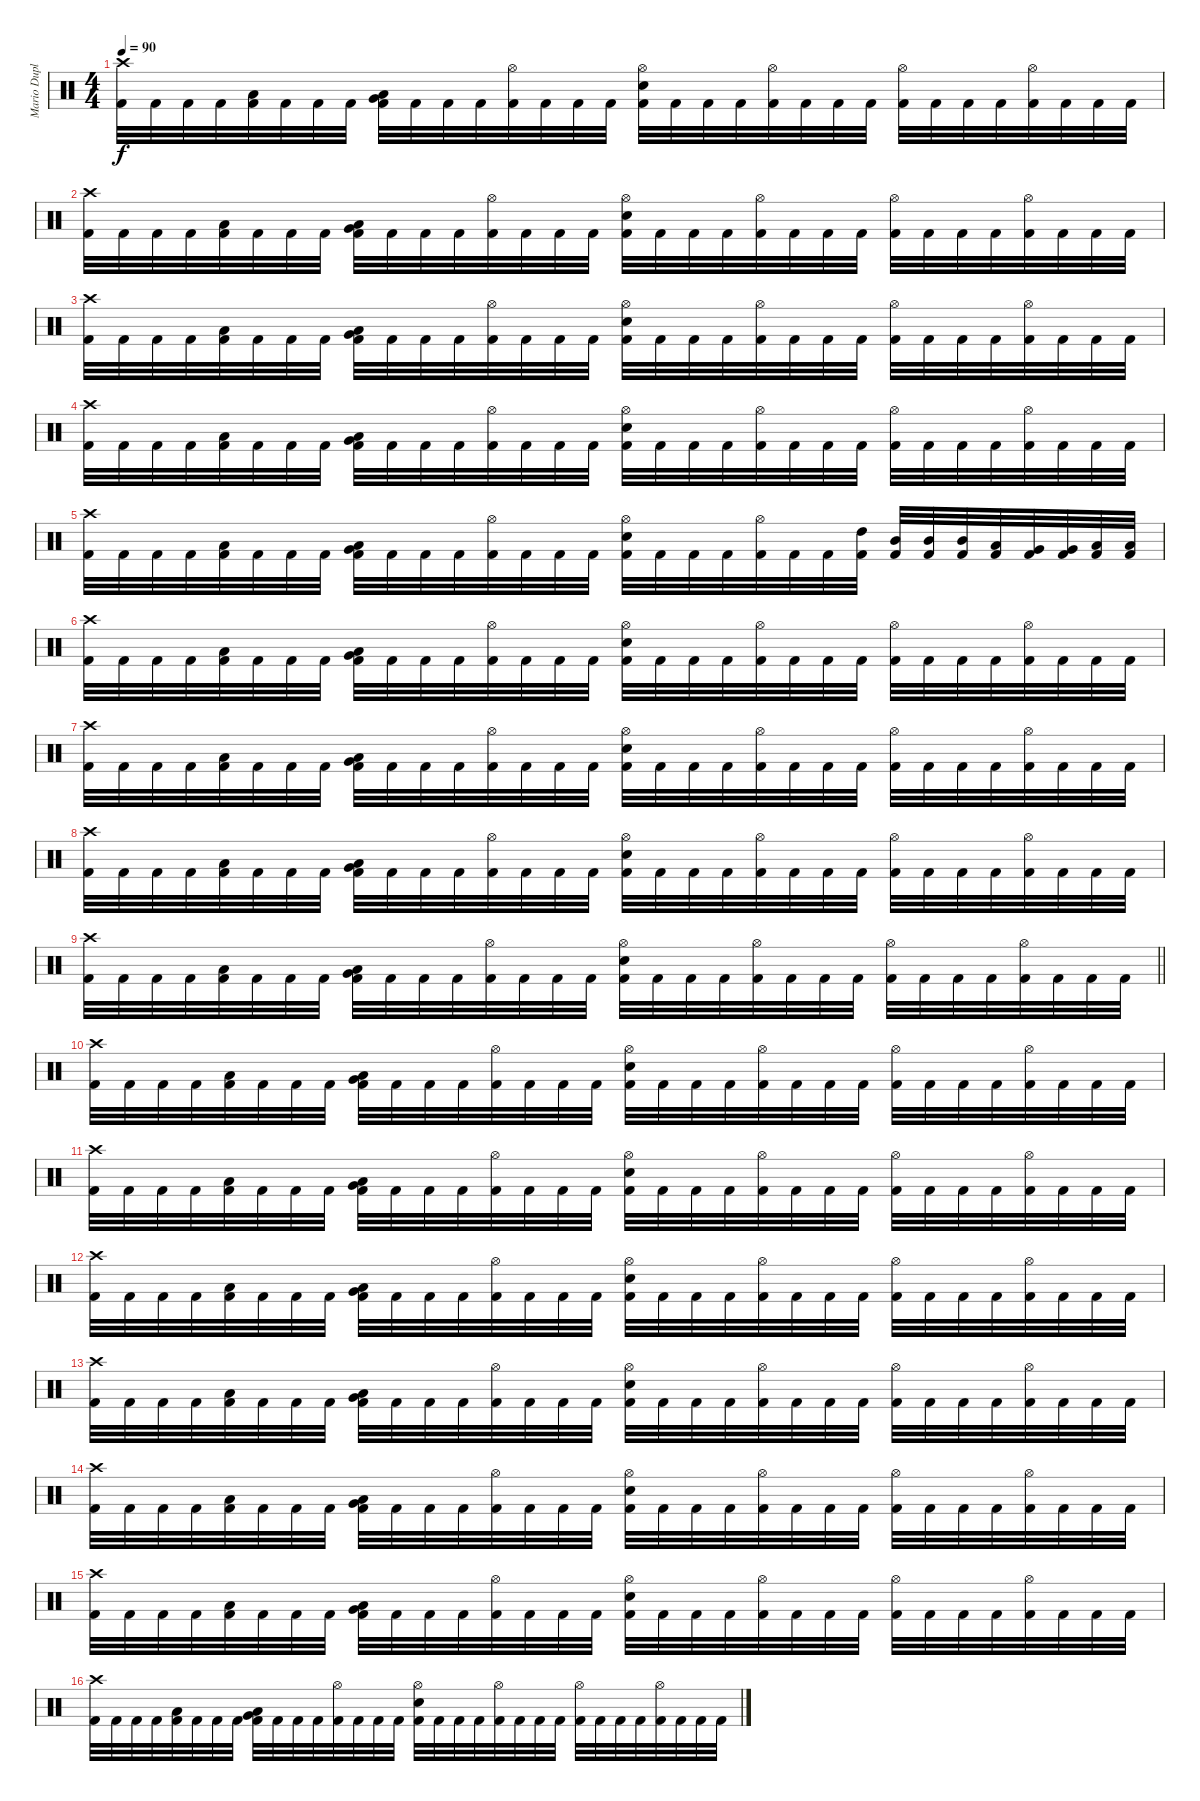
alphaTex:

\track ("Mario Duplantier" "Mario Dupl") {instrument percussion}
\staff {score}
\articulation defaults
\ts (4 4)
\tempo 90
\clef neutral
\ks c
("Crash high (hit)" "Kick (hit) 2").32{dy f} "Kick (hit) 2".32 "Kick (hit) 2".32 "Kick (hit) 2".32 ("Low Tom (hit)" "Kick (hit) 2").32 "Kick (hit) 2".32 "Kick (hit) 2".32 "Kick (hit) 2".32 ("Very Low Tom (hit)" "Low Floor Tom (hit)" "Kick (hit) 2").32 "Kick (hit) 2".32 "Kick (hit) 2".32 "Kick (hit) 2".32 ("Hi-Hat (open)" "Kick (hit) 2").32 "Kick (hit) 2".32 "Kick (hit) 2".32 "Kick (hit) 2".32 ("Hi-Hat (open)" "Electric Snare (hit)" "Kick (hit) 2").32 "Kick (hit) 2".32 "Kick (hit) 2".32 "Kick (hit) 2".32 ("Hi-Hat (open)" "Kick (hit) 2").32 "Kick (hit) 2".32 "Kick (hit) 2".32 "Kick (hit) 2".32 ("Hi-Hat (open)" "Kick (hit) 2").32 "Kick (hit) 2".32 "Kick (hit) 2".32 "Kick (hit) 2".32 ("Hi-Hat (open)" "Kick (hit) 2").32 "Kick (hit) 2".32 "Kick (hit) 2".32 "Kick (hit) 2".32 |
("Crash high (hit)" "Kick (hit) 2").32 "Kick (hit) 2".32 "Kick (hit) 2".32 "Kick (hit) 2".32 ("Low Tom (hit)" "Kick (hit) 2").32 "Kick (hit) 2".32 "Kick (hit) 2".32 "Kick (hit) 2".32 ("Very Low Tom (hit)" "Low Floor Tom (hit)" "Kick (hit) 2").32 "Kick (hit) 2".32 "Kick (hit) 2".32 "Kick (hit) 2".32 ("Hi-Hat (open)" "Kick (hit) 2").32 "Kick (hit) 2".32 "Kick (hit) 2".32 "Kick (hit) 2".32 ("Hi-Hat (open)" "Electric Snare (hit)" "Kick (hit) 2").32 "Kick (hit) 2".32 "Kick (hit) 2".32 "Kick (hit) 2".32 ("Hi-Hat (open)" "Kick (hit) 2").32 "Kick (hit) 2".32 "Kick (hit) 2".32 "Kick (hit) 2".32 ("Hi-Hat (open)" "Kick (hit) 2").32 "Kick (hit) 2".32 "Kick (hit) 2".32 "Kick (hit) 2".32 ("Hi-Hat (open)" "Kick (hit) 2").32 "Kick (hit) 2".32 "Kick (hit) 2".32 "Kick (hit) 2".32 |
("Crash high (hit)" "Kick (hit) 2").32 "Kick (hit) 2".32 "Kick (hit) 2".32 "Kick (hit) 2".32 ("Low Tom (hit)" "Kick (hit) 2").32 "Kick (hit) 2".32 "Kick (hit) 2".32 "Kick (hit) 2".32 ("Very Low Tom (hit)" "Low Floor Tom (hit)" "Kick (hit) 2").32 "Kick (hit) 2".32 "Kick (hit) 2".32 "Kick (hit) 2".32 ("Hi-Hat (open)" "Kick (hit) 2").32 "Kick (hit) 2".32 "Kick (hit) 2".32 "Kick (hit) 2".32 ("Hi-Hat (open)" "Electric Snare (hit)" "Kick (hit) 2").32 "Kick (hit) 2".32 "Kick (hit) 2".32 "Kick (hit) 2".32 ("Hi-Hat (open)" "Kick (hit) 2").32 "Kick (hit) 2".32 "Kick (hit) 2".32 "Kick (hit) 2".32 ("Hi-Hat (open)" "Kick (hit) 2").32 "Kick (hit) 2".32 "Kick (hit) 2".32 "Kick (hit) 2".32 ("Hi-Hat (open)" "Kick (hit) 2").32 "Kick (hit) 2".32 "Kick (hit) 2".32 "Kick (hit) 2".32 |
("Crash high (hit)" "Kick (hit) 2").32 "Kick (hit) 2".32 "Kick (hit) 2".32 "Kick (hit) 2".32 ("Low Tom (hit)" "Kick (hit) 2").32 "Kick (hit) 2".32 "Kick (hit) 2".32 "Kick (hit) 2".32 ("Very Low Tom (hit)" "Low Floor Tom (hit)" "Kick (hit) 2").32 "Kick (hit) 2".32 "Kick (hit) 2".32 "Kick (hit) 2".32 ("Hi-Hat (open)" "Kick (hit) 2").32 "Kick (hit) 2".32 "Kick (hit) 2".32 "Kick (hit) 2".32 ("Hi-Hat (open)" "Electric Snare (hit)" "Kick (hit) 2").32 "Kick (hit) 2".32 "Kick (hit) 2".32 "Kick (hit) 2".32 ("Hi-Hat (open)" "Kick (hit) 2").32 "Kick (hit) 2".32 "Kick (hit) 2".32 "Kick (hit) 2".32 ("Hi-Hat (open)" "Kick (hit) 2").32 "Kick (hit) 2".32 "Kick (hit) 2".32 "Kick (hit) 2".32 ("Hi-Hat (open)" "Kick (hit) 2").32 "Kick (hit) 2".32 "Kick (hit) 2".32 "Kick (hit) 2".32 |
("Crash high (hit)" "Kick (hit) 2").32 "Kick (hit) 2".32 "Kick (hit) 2".32 "Kick (hit) 2".32 ("Low Tom (hit)" "Kick (hit) 2").32 "Kick (hit) 2".32 "Kick (hit) 2".32 "Kick (hit) 2".32 ("Very Low Tom (hit)" "Low Floor Tom (hit)" "Kick (hit) 2").32 "Kick (hit) 2".32 "Kick (hit) 2".32 "Kick (hit) 2".32 ("Hi-Hat (open)" "Kick (hit) 2").32 "Kick (hit) 2".32 "Kick (hit) 2".32 "Kick (hit) 2".32 ("Hi-Hat (open)" "Electric Snare (hit)" "Kick (hit) 2").32 "Kick (hit) 2".32 "Kick (hit) 2".32 "Kick (hit) 2".32 ("Hi-Hat (open)" "Kick (hit) 2").32 "Kick (hit) 2".32 "Kick (hit) 2".32 ("High Tom (hit)" "Kick (hit) 2").32 ("Mid Tom (hit)" "Kick (hit) 2").32 ("Mid Tom (hit)" "Kick (hit) 2").32 ("Mid Tom (hit)" "Kick (hit) 2").32 ("Low Tom (hit)" "Kick (hit) 2").32 ("Very Low Tom (hit)" "Kick (hit) 2").32 ("Very Low Tom (hit)" "Kick (hit) 2").32 ("Low Floor Tom (hit)" "Kick (hit) 2").32 ("Low Floor Tom (hit)" "Kick (hit) 2").32 |
("Crash high (hit)" "Kick (hit) 2").32 "Kick (hit) 2".32 "Kick (hit) 2".32 "Kick (hit) 2".32 ("Low Tom (hit)" "Kick (hit) 2").32 "Kick (hit) 2".32 "Kick (hit) 2".32 "Kick (hit) 2".32 ("Very Low Tom (hit)" "Low Floor Tom (hit)" "Kick (hit) 2").32 "Kick (hit) 2".32 "Kick (hit) 2".32 "Kick (hit) 2".32 ("Hi-Hat (open)" "Kick (hit) 2").32 "Kick (hit) 2".32 "Kick (hit) 2".32 "Kick (hit) 2".32 ("Hi-Hat (open)" "Electric Snare (hit)" "Kick (hit) 2").32 "Kick (hit) 2".32 "Kick (hit) 2".32 "Kick (hit) 2".32 ("Hi-Hat (open)" "Kick (hit) 2").32 "Kick (hit) 2".32 "Kick (hit) 2".32 "Kick (hit) 2".32 ("Hi-Hat (open)" "Kick (hit) 2").32 "Kick (hit) 2".32 "Kick (hit) 2".32 "Kick (hit) 2".32 ("Hi-Hat (open)" "Kick (hit) 2").32 "Kick (hit) 2".32 "Kick (hit) 2".32 "Kick (hit) 2".32 |
("Crash high (hit)" "Kick (hit) 2").32 "Kick (hit) 2".32 "Kick (hit) 2".32 "Kick (hit) 2".32 ("Low Tom (hit)" "Kick (hit) 2").32 "Kick (hit) 2".32 "Kick (hit) 2".32 "Kick (hit) 2".32 ("Very Low Tom (hit)" "Low Floor Tom (hit)" "Kick (hit) 2").32 "Kick (hit) 2".32 "Kick (hit) 2".32 "Kick (hit) 2".32 ("Hi-Hat (open)" "Kick (hit) 2").32 "Kick (hit) 2".32 "Kick (hit) 2".32 "Kick (hit) 2".32 ("Hi-Hat (open)" "Electric Snare (hit)" "Kick (hit) 2").32 "Kick (hit) 2".32 "Kick (hit) 2".32 "Kick (hit) 2".32 ("Hi-Hat (open)" "Kick (hit) 2").32 "Kick (hit) 2".32 "Kick (hit) 2".32 "Kick (hit) 2".32 ("Hi-Hat (open)" "Kick (hit) 2").32 "Kick (hit) 2".32 "Kick (hit) 2".32 "Kick (hit) 2".32 ("Hi-Hat (open)" "Kick (hit) 2").32 "Kick (hit) 2".32 "Kick (hit) 2".32 "Kick (hit) 2".32 |
("Crash high (hit)" "Kick (hit) 2").32 "Kick (hit) 2".32 "Kick (hit) 2".32 "Kick (hit) 2".32 ("Low Tom (hit)" "Kick (hit) 2").32 "Kick (hit) 2".32 "Kick (hit) 2".32 "Kick (hit) 2".32 ("Very Low Tom (hit)" "Low Floor Tom (hit)" "Kick (hit) 2").32 "Kick (hit) 2".32 "Kick (hit) 2".32 "Kick (hit) 2".32 ("Hi-Hat (open)" "Kick (hit) 2").32 "Kick (hit) 2".32 "Kick (hit) 2".32 "Kick (hit) 2".32 ("Hi-Hat (open)" "Electric Snare (hit)" "Kick (hit) 2").32 "Kick (hit) 2".32 "Kick (hit) 2".32 "Kick (hit) 2".32 ("Hi-Hat (open)" "Kick (hit) 2").32 "Kick (hit) 2".32 "Kick (hit) 2".32 "Kick (hit) 2".32 ("Hi-Hat (open)" "Kick (hit) 2").32 "Kick (hit) 2".32 "Kick (hit) 2".32 "Kick (hit) 2".32 ("Hi-Hat (open)" "Kick (hit) 2").32 "Kick (hit) 2".32 "Kick (hit) 2".32 "Kick (hit) 2".32 |
\barLineRight lightlight
("Crash high (hit)" "Kick (hit) 2").32 "Kick (hit) 2".32 "Kick (hit) 2".32 "Kick (hit) 2".32 ("Low Tom (hit)" "Kick (hit) 2").32 "Kick (hit) 2".32 "Kick (hit) 2".32 "Kick (hit) 2".32 ("Very Low Tom (hit)" "Low Floor Tom (hit)" "Kick (hit) 2").32 "Kick (hit) 2".32 "Kick (hit) 2".32 "Kick (hit) 2".32 ("Hi-Hat (open)" "Kick (hit) 2").32 "Kick (hit) 2".32 "Kick (hit) 2".32 "Kick (hit) 2".32 ("Hi-Hat (open)" "Electric Snare (hit)" "Kick (hit) 2").32 "Kick (hit) 2".32 "Kick (hit) 2".32 "Kick (hit) 2".32 ("Hi-Hat (open)" "Kick (hit) 2").32 "Kick (hit) 2".32 "Kick (hit) 2".32 "Kick (hit) 2".32 ("Hi-Hat (open)" "Kick (hit) 2").32 "Kick (hit) 2".32 "Kick (hit) 2".32 "Kick (hit) 2".32 ("Hi-Hat (open)" "Kick (hit) 2").32 "Kick (hit) 2".32 "Kick (hit) 2".32 "Kick (hit) 2".32 |
("Crash high (hit)" "Kick (hit) 2").32 "Kick (hit) 2".32 "Kick (hit) 2".32 "Kick (hit) 2".32 ("Low Tom (hit)" "Kick (hit) 2").32 "Kick (hit) 2".32 "Kick (hit) 2".32 "Kick (hit) 2".32 ("Very Low Tom (hit)" "Low Floor Tom (hit)" "Kick (hit) 2").32 "Kick (hit) 2".32 "Kick (hit) 2".32 "Kick (hit) 2".32 ("Hi-Hat (open)" "Kick (hit) 2").32 "Kick (hit) 2".32 "Kick (hit) 2".32 "Kick (hit) 2".32 ("Hi-Hat (open)" "Electric Snare (hit)" "Kick (hit) 2").32 "Kick (hit) 2".32 "Kick (hit) 2".32 "Kick (hit) 2".32 ("Hi-Hat (open)" "Kick (hit) 2").32 "Kick (hit) 2".32 "Kick (hit) 2".32 "Kick (hit) 2".32 ("Hi-Hat (open)" "Kick (hit) 2").32 "Kick (hit) 2".32 "Kick (hit) 2".32 "Kick (hit) 2".32 ("Hi-Hat (open)" "Kick (hit) 2").32 "Kick (hit) 2".32 "Kick (hit) 2".32 "Kick (hit) 2".32 |
("Crash high (hit)" "Kick (hit) 2").32 "Kick (hit) 2".32 "Kick (hit) 2".32 "Kick (hit) 2".32 ("Low Tom (hit)" "Kick (hit) 2").32 "Kick (hit) 2".32 "Kick (hit) 2".32 "Kick (hit) 2".32 ("Very Low Tom (hit)" "Low Floor Tom (hit)" "Kick (hit) 2").32 "Kick (hit) 2".32 "Kick (hit) 2".32 "Kick (hit) 2".32 ("Hi-Hat (open)" "Kick (hit) 2").32 "Kick (hit) 2".32 "Kick (hit) 2".32 "Kick (hit) 2".32 ("Hi-Hat (open)" "Electric Snare (hit)" "Kick (hit) 2").32 "Kick (hit) 2".32 "Kick (hit) 2".32 "Kick (hit) 2".32 ("Hi-Hat (open)" "Kick (hit) 2").32 "Kick (hit) 2".32 "Kick (hit) 2".32 "Kick (hit) 2".32 ("Hi-Hat (open)" "Kick (hit) 2").32 "Kick (hit) 2".32 "Kick (hit) 2".32 "Kick (hit) 2".32 ("Hi-Hat (open)" "Kick (hit) 2").32 "Kick (hit) 2".32 "Kick (hit) 2".32 "Kick (hit) 2".32 |
("Crash high (hit)" "Kick (hit) 2").32 "Kick (hit) 2".32 "Kick (hit) 2".32 "Kick (hit) 2".32 ("Low Tom (hit)" "Kick (hit) 2").32 "Kick (hit) 2".32 "Kick (hit) 2".32 "Kick (hit) 2".32 ("Very Low Tom (hit)" "Low Floor Tom (hit)" "Kick (hit) 2").32 "Kick (hit) 2".32 "Kick (hit) 2".32 "Kick (hit) 2".32 ("Hi-Hat (open)" "Kick (hit) 2").32 "Kick (hit) 2".32 "Kick (hit) 2".32 "Kick (hit) 2".32 ("Hi-Hat (open)" "Electric Snare (hit)" "Kick (hit) 2").32 "Kick (hit) 2".32 "Kick (hit) 2".32 "Kick (hit) 2".32 ("Hi-Hat (open)" "Kick (hit) 2").32 "Kick (hit) 2".32 "Kick (hit) 2".32 "Kick (hit) 2".32 ("Hi-Hat (open)" "Kick (hit) 2").32 "Kick (hit) 2".32 "Kick (hit) 2".32 "Kick (hit) 2".32 ("Hi-Hat (open)" "Kick (hit) 2").32 "Kick (hit) 2".32 "Kick (hit) 2".32 "Kick (hit) 2".32 |
("Crash high (hit)" "Kick (hit) 2").32 "Kick (hit) 2".32 "Kick (hit) 2".32 "Kick (hit) 2".32 ("Low Tom (hit)" "Kick (hit) 2").32 "Kick (hit) 2".32 "Kick (hit) 2".32 "Kick (hit) 2".32 ("Very Low Tom (hit)" "Low Floor Tom (hit)" "Kick (hit) 2").32 "Kick (hit) 2".32 "Kick (hit) 2".32 "Kick (hit) 2".32 ("Hi-Hat (open)" "Kick (hit) 2").32 "Kick (hit) 2".32 "Kick (hit) 2".32 "Kick (hit) 2".32 ("Hi-Hat (open)" "Electric Snare (hit)" "Kick (hit) 2").32 "Kick (hit) 2".32 "Kick (hit) 2".32 "Kick (hit) 2".32 ("Hi-Hat (open)" "Kick (hit) 2").32 "Kick (hit) 2".32 "Kick (hit) 2".32 "Kick (hit) 2".32 ("Hi-Hat (open)" "Kick (hit) 2").32 "Kick (hit) 2".32 "Kick (hit) 2".32 "Kick (hit) 2".32 ("Hi-Hat (open)" "Kick (hit) 2").32 "Kick (hit) 2".32 "Kick (hit) 2".32 "Kick (hit) 2".32 |
("Crash high (hit)" "Kick (hit) 2").32 "Kick (hit) 2".32 "Kick (hit) 2".32 "Kick (hit) 2".32 ("Low Tom (hit)" "Kick (hit) 2").32 "Kick (hit) 2".32 "Kick (hit) 2".32 "Kick (hit) 2".32 ("Very Low Tom (hit)" "Low Floor Tom (hit)" "Kick (hit) 2").32 "Kick (hit) 2".32 "Kick (hit) 2".32 "Kick (hit) 2".32 ("Hi-Hat (open)" "Kick (hit) 2").32 "Kick (hit) 2".32 "Kick (hit) 2".32 "Kick (hit) 2".32 ("Hi-Hat (open)" "Electric Snare (hit)" "Kick (hit) 2").32 "Kick (hit) 2".32 "Kick (hit) 2".32 "Kick (hit) 2".32 ("Hi-Hat (open)" "Kick (hit) 2").32 "Kick (hit) 2".32 "Kick (hit) 2".32 "Kick (hit) 2".32 ("Hi-Hat (open)" "Kick (hit) 2").32 "Kick (hit) 2".32 "Kick (hit) 2".32 "Kick (hit) 2".32 ("Hi-Hat (open)" "Kick (hit) 2").32 "Kick (hit) 2".32 "Kick (hit) 2".32 "Kick (hit) 2".32 |
("Crash high (hit)" "Kick (hit) 2").32 "Kick (hit) 2".32 "Kick (hit) 2".32 "Kick (hit) 2".32 ("Low Tom (hit)" "Kick (hit) 2").32 "Kick (hit) 2".32 "Kick (hit) 2".32 "Kick (hit) 2".32 ("Very Low Tom (hit)" "Low Floor Tom (hit)" "Kick (hit) 2").32 "Kick (hit) 2".32 "Kick (hit) 2".32 "Kick (hit) 2".32 ("Hi-Hat (open)" "Kick (hit) 2").32 "Kick (hit) 2".32 "Kick (hit) 2".32 "Kick (hit) 2".32 ("Hi-Hat (open)" "Electric Snare (hit)" "Kick (hit) 2").32 "Kick (hit) 2".32 "Kick (hit) 2".32 "Kick (hit) 2".32 ("Hi-Hat (open)" "Kick (hit) 2").32 "Kick (hit) 2".32 "Kick (hit) 2".32 "Kick (hit) 2".32 ("Hi-Hat (open)" "Kick (hit) 2").32 "Kick (hit) 2".32 "Kick (hit) 2".32 "Kick (hit) 2".32 ("Hi-Hat (open)" "Kick (hit) 2").32 "Kick (hit) 2".32 "Kick (hit) 2".32 "Kick (hit) 2".32 |
("Crash high (hit)" "Kick (hit) 2").32 "Kick (hit) 2".32 "Kick (hit) 2".32 "Kick (hit) 2".32 ("Low Tom (hit)" "Kick (hit) 2").32 "Kick (hit) 2".32 "Kick (hit) 2".32 "Kick (hit) 2".32 ("Very Low Tom (hit)" "Low Floor Tom (hit)" "Kick (hit) 2").32 "Kick (hit) 2".32 "Kick (hit) 2".32 "Kick (hit) 2".32 ("Hi-Hat (open)" "Kick (hit) 2").32 "Kick (hit) 2".32 "Kick (hit) 2".32 "Kick (hit) 2".32 ("Hi-Hat (open)" "Electric Snare (hit)" "Kick (hit) 2").32 "Kick (hit) 2".32 "Kick (hit) 2".32 "Kick (hit) 2".32 ("Hi-Hat (open)" "Kick (hit) 2").32 "Kick (hit) 2".32 "Kick (hit) 2".32 "Kick (hit) 2".32 ("Hi-Hat (open)" "Kick (hit) 2").32 "Kick (hit) 2".32 "Kick (hit) 2".32 "Kick (hit) 2".32 ("Hi-Hat (open)" "Kick (hit) 2").32 "Kick (hit) 2".32 "Kick (hit) 2".32 "Kick (hit) 2".32
